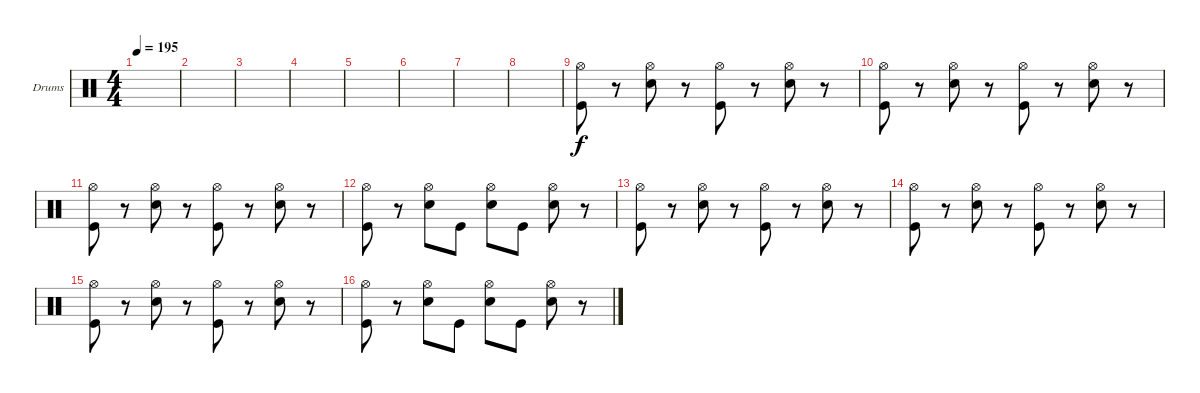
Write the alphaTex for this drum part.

\defaultSystemsLayout 4
\bracketExtendMode groupsimilarinstruments
\firstSystemTrackNameOrientation horizontal
\otherSystemsTrackNameOrientation horizontal
\track ("Drumkit" "Drums") {instrument percussion}
\staff {score}
\articulation defaults
\ts (4 4)
\tempo 195
\clef neutral
\ks c
|
|
|
|
|
|
|
|
("Kick (hit)" "Hi-Hat (open)").8 r.8 ("Snare (hit) 2" "Hi-Hat (open)").8 r.8 ("Kick (hit)" "Hi-Hat (open)").8 r.8 ("Snare (hit) 2" "Hi-Hat (open)").8 r.8 |
("Kick (hit)" "Hi-Hat (open)").8 r.8 ("Snare (hit) 2" "Hi-Hat (open)").8 r.8 ("Kick (hit)" "Hi-Hat (open)").8 r.8 ("Snare (hit) 2" "Hi-Hat (open)").8 r.8 |
("Kick (hit)" "Hi-Hat (open)").8 r.8 ("Snare (hit) 2" "Hi-Hat (open)").8 r.8 ("Kick (hit)" "Hi-Hat (open)").8 r.8 ("Snare (hit) 2" "Hi-Hat (open)").8 r.8 |
("Kick (hit)" "Hi-Hat (open)").8 r.8 ("Snare (hit) 2" "Hi-Hat (open)").8 "Kick (hit)".8 ("Hi-Hat (open)" "Snare (hit) 2").8 "Kick (hit)".8 ("Snare (hit) 2" "Hi-Hat (open)").8 r.8 |
("Kick (hit)" "Hi-Hat (open)").8 r.8 ("Snare (hit) 2" "Hi-Hat (open)").8 r.8 ("Kick (hit)" "Hi-Hat (open)").8 r.8 ("Snare (hit) 2" "Hi-Hat (open)").8 r.8 |
("Kick (hit)" "Hi-Hat (open)").8 r.8 ("Snare (hit) 2" "Hi-Hat (open)").8 r.8 ("Kick (hit)" "Hi-Hat (open)").8 r.8 ("Snare (hit) 2" "Hi-Hat (open)").8 r.8 |
("Kick (hit)" "Hi-Hat (open)").8 r.8 ("Snare (hit) 2" "Hi-Hat (open)").8 r.8 ("Kick (hit)" "Hi-Hat (open)").8 r.8 ("Snare (hit) 2" "Hi-Hat (open)").8 r.8 |
("Kick (hit)" "Hi-Hat (open)").8 r.8 ("Snare (hit) 2" "Hi-Hat (open)").8 "Kick (hit)".8 ("Hi-Hat (open)" "Snare (hit) 2").8 "Kick (hit)".8 ("Snare (hit) 2" "Hi-Hat (open)").8 r.8
